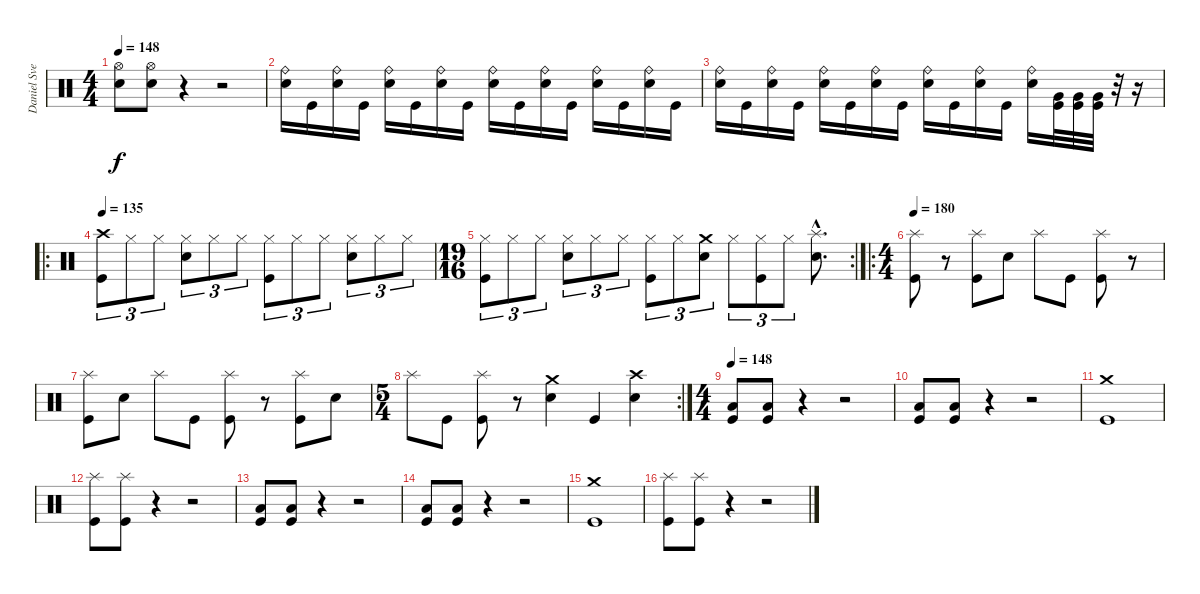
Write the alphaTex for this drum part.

\track ("Daniel Svenson" "Daniel Sve") {instrument percussion}
\staff {score}
\articulation defaults
\ts (4 4)
\tempo 148
\clef neutral
\ks c
("Electric Snare (hit)" "Hi-Hat (open)").8{dy f} ("Electric Snare (hit)" "Hi-Hat (open)").8 r.4 r.2 |
("Electric Snare (hit)" "Ride (bell)").16 "Kick (hit)".16 ("Electric Snare (hit)" "Ride (bell)").16 "Kick (hit)".16 ("Electric Snare (hit)" "Ride (bell)").16 "Kick (hit)".16 ("Electric Snare (hit)" "Ride (bell)").16 "Kick (hit)".16 ("Electric Snare (hit)" "Ride (bell)").16 "Kick (hit)".16 ("Electric Snare (hit)" "Ride (bell)").16 "Kick (hit)".16 ("Electric Snare (hit)" "Ride (bell)").16 "Kick (hit)".16 ("Electric Snare (hit)" "Ride (bell)").16 "Kick (hit)".16 |
("Electric Snare (hit)" "Ride (bell)").16 "Kick (hit)".16 ("Electric Snare (hit)" "Ride (bell)").16 "Kick (hit)".16 ("Electric Snare (hit)" "Ride (bell)").16 "Kick (hit)".16 ("Electric Snare (hit)" "Ride (bell)").16 "Kick (hit)".16 ("Electric Snare (hit)" "Ride (bell)").16 "Kick (hit)".16 ("Electric Snare (hit)" "Ride (bell)").16 "Kick (hit)".16 ("Electric Snare (hit)" "Ride (bell)").16 ("Kick (hit)" "Very Low Tom (hit)").32 ("Kick (hit)" "Very Low Tom (hit)").32 ("Kick (hit)" "Very Low Tom (hit)").32 r.32 r.16 |
\ro
\tempo 135
("Kick (hit)" "Crash high (hit)").8{tu (3 2)} "Hi-Hat (closed)".8{tu (3 2)} "Hi-Hat (closed)".8{tu (3 2)} ("Electric Snare (hit)" "Hi-Hat (closed)").8{tu (3 2)} "Hi-Hat (closed)".8{tu (3 2)} "Hi-Hat (closed)".8{tu (3 2)} ("Kick (hit)" "Hi-Hat (closed)").8{tu (3 2)} "Hi-Hat (closed)".8{tu (3 2)} "Hi-Hat (closed)".8{tu (3 2)} ("Electric Snare (hit)" "Hi-Hat (closed)").8{tu (3 2)} "Hi-Hat (closed)".8{tu (3 2)} "Hi-Hat (closed)".8{tu (3 2)} |
\rc 2
\ts (19 16)
("Kick (hit)" "Hi-Hat (closed)").8{tu (3 2)} "Hi-Hat (closed)".8{tu (3 2)} "Hi-Hat (closed)".8{tu (3 2)} ("Electric Snare (hit)" "Hi-Hat (closed)").8{tu (3 2)} "Hi-Hat (closed)".8{tu (3 2)} "Hi-Hat (closed)".8{tu (3 2)} ("Kick (hit)" "Hi-Hat (closed)").8{tu (3 2)} "Hi-Hat (closed)".8{tu (3 2)} ("Electric Snare (hit)" "Crash medium (hit)").8{tu (3 2)} "Hi-Hat (closed)".8{tu (3 2)} ("Kick (hit)" "Hi-Hat (closed)").8{tu (3 2)} "Hi-Hat (closed)".8{tu (3 2)} ("Electric Snare (hit)"{hac} "Splash (hit)"{hac}).8{d} |
\ro
\ts (4 4)
\tempo 180
("Kick (hit)" "Splash (hit)").8 r.8 ("Kick (hit)" "Splash (hit)").8 "Electric Snare (hit)".8 "Splash (hit)".8 "Kick (hit)".8 ("Kick (hit)" "Splash (hit)").8 r.8 |
("Kick (hit)" "Splash (hit)").8 "Electric Snare (hit)".8 "Splash (hit)".8 "Kick (hit)".8 ("Kick (hit)" "Splash (hit)").8 r.8 ("Kick (hit)" "Splash (hit)").8 "Electric Snare (hit)".8 |
\rc 2
\ts (5 4)
"Splash (hit)".8 "Kick (hit)".8 ("Kick (hit)" "Splash (hit)").8 r.8 ("Electric Snare (hit)" "Crash medium (hit)").4 "Kick (hit)".4 ("Electric Snare (hit)" "Crash high (hit)").4 |
\ts (4 4)
\tempo 148
("Kick (hit)" "Low Floor Tom (hit)").8 ("Kick (hit)" "Low Floor Tom (hit)").8 r.4 r.2 |
("Kick (hit)" "Low Floor Tom (hit)").8 ("Kick (hit)" "Low Floor Tom (hit)").8 r.4 r.2 |
("Kick (hit)" "Crash medium (hit)").1 |
("Kick (hit)" "Splash (hit)").8 ("Kick (hit)" "Splash (hit)").8 r.4 r.2 |
("Kick (hit)" "Low Floor Tom (hit)").8 ("Kick (hit)" "Low Floor Tom (hit)").8 r.4 r.2 |
("Kick (hit)" "Low Floor Tom (hit)").8 ("Kick (hit)" "Low Floor Tom (hit)").8 r.4 r.2 |
("Kick (hit)" "Crash medium (hit)").1 |
("Kick (hit)" "Splash (hit)").8 ("Kick (hit)" "Splash (hit)").8 r.4 r.2
